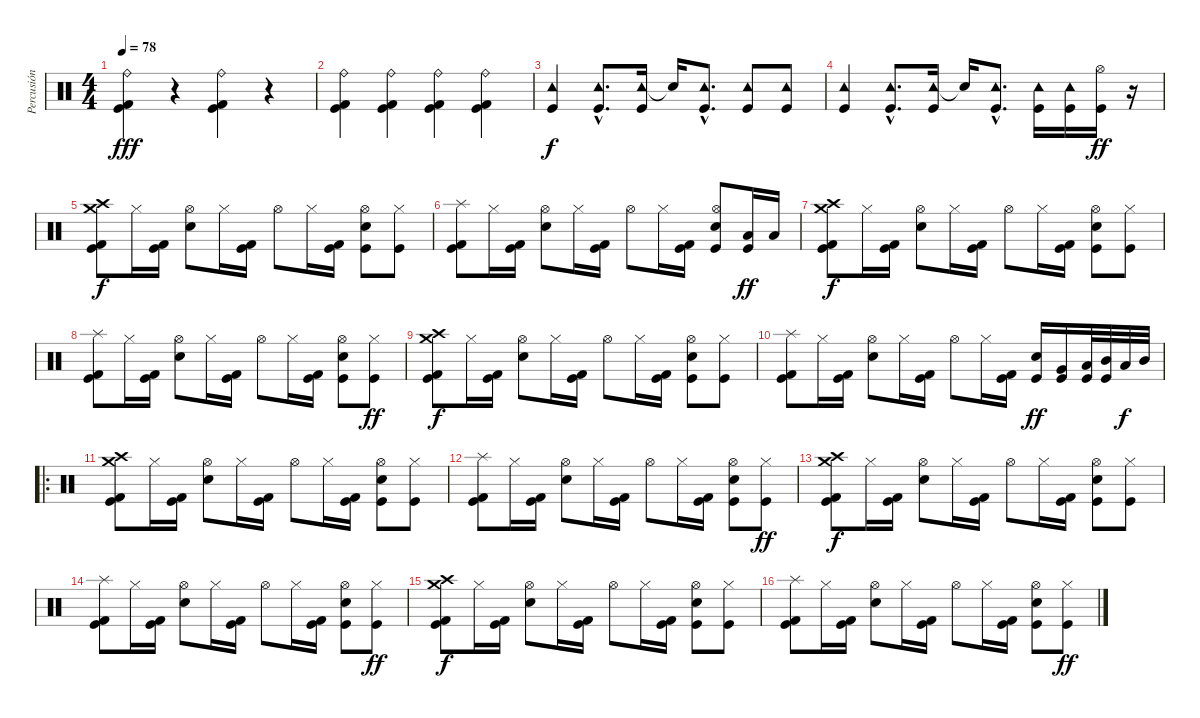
\track ("Percusión" "Percusión") {instrument percussion}
\staff {score}
\articulation defaults
\ts (4 4)
\tempo 78
\clef neutral
\ks c
("Ride (bell)" "Kick (hit) 2" "Kick (hit)").4{dy fff} r.4 ("Ride (bell)" "Kick (hit) 2" "Kick (hit)").4 r.4 |
("Ride (bell)" "Kick (hit) 2" "Kick (hit)").4 ("Ride (bell)" "Kick (hit) 2" "Kick (hit)").4 ("Ride (bell)" "Kick (hit) 2" "Kick (hit)").4 ("Ride (bell)" "Kick (hit) 2" "Kick (hit)").4 |
("Tambourine (hit)" "Kick (hit)").4{dy f} ("Tambourine (hit)"{hac} "Kick (hit)"{hac}).8{d} ("Tambourine (hit)" "Kick (hit)").16 "Snare (hit)"{t}.16 ("Tambourine (hit)"{hac} "Kick (hit)"{hac}).8{d} ("Tambourine (hit)" "Kick (hit)").8 ("Tambourine (hit)" "Kick (hit)").8 |
("Tambourine (hit)" "Kick (hit)").4 ("Tambourine (hit)"{hac} "Kick (hit)"{hac}).8{d} ("Tambourine (hit)" "Kick (hit)").16 "Snare (hit)"{t}.16 ("Tambourine (hit)"{hac} "Kick (hit)"{hac}).8{d} ("Tambourine (hit)" "Kick (hit)").16 ("Tambourine (hit)" "Kick (hit)").16 ("Hi-Hat (open)" "Kick (hit)").16{dy ff} r.16 |
("Crash high (hit)" "Crash medium (hit)" "Kick (hit) 2" "Kick (hit)").8{dy f} "Hi-Hat (closed)".16 ("Kick (hit) 2" "Kick (hit)").16 ("Hi-Hat (open)" "Electric Snare (hit)").8 "Hi-Hat (closed)".16 ("Kick (hit) 2" "Kick (hit)").16 "Hi-Hat (open)".8 "Hi-Hat (closed)".16 ("Kick (hit)" "Kick (hit) 2").16 ("Hi-Hat (open)" "Electric Snare (hit)" "Kick (hit)").8 ("Hi-Hat (closed)" "Kick (hit)").8 |
("Splash (hit)" "Kick (hit) 2" "Kick (hit)").8 "Hi-Hat (closed)".16 ("Kick (hit) 2" "Kick (hit)").16 ("Hi-Hat (open)" "Electric Snare (hit)").8 "Hi-Hat (closed)".16 ("Kick (hit) 2" "Kick (hit)").16 "Hi-Hat (open)".8 "Hi-Hat (closed)".16 ("Kick (hit)" "Kick (hit) 2").16 ("Hi-Hat (open)" "Electric Snare (hit)" "Kick (hit)").8 ("Low Floor Tom (hit)" "Kick (hit)").16{dy ff} "Low Tom (hit)".16 |
("Crash high (hit)" "Crash medium (hit)" "Kick (hit) 2" "Kick (hit)").8{dy f} "Hi-Hat (closed)".16 ("Kick (hit) 2" "Kick (hit)").16 ("Hi-Hat (open)" "Electric Snare (hit)").8 "Hi-Hat (closed)".16 ("Kick (hit) 2" "Kick (hit)").16 "Hi-Hat (open)".8 "Hi-Hat (closed)".16 ("Kick (hit)" "Kick (hit) 2").16 ("Hi-Hat (open)" "Electric Snare (hit)" "Kick (hit)").8 ("Hi-Hat (closed)" "Kick (hit)").8 |
("Splash (hit)" "Kick (hit) 2" "Kick (hit)").8 "Hi-Hat (closed)".16 ("Kick (hit) 2" "Kick (hit)").16 ("Hi-Hat (open)" "Electric Snare (hit)").8 "Hi-Hat (closed)".16 ("Kick (hit) 2" "Kick (hit)").16 "Hi-Hat (open)".8 "Hi-Hat (closed)".16 ("Kick (hit)" "Kick (hit) 2").16 ("Hi-Hat (open)" "Electric Snare (hit)" "Kick (hit)").8 ("Hi-Hat (closed)" "Kick (hit)").8{dy ff} |
("Crash high (hit)" "Crash medium (hit)" "Kick (hit) 2" "Kick (hit)").8{dy f} "Hi-Hat (closed)".16 ("Kick (hit) 2" "Kick (hit)").16 ("Hi-Hat (open)" "Electric Snare (hit)").8 "Hi-Hat (closed)".16 ("Kick (hit) 2" "Kick (hit)").16 "Hi-Hat (open)".8 "Hi-Hat (closed)".16 ("Kick (hit)" "Kick (hit) 2").16 ("Hi-Hat (open)" "Electric Snare (hit)" "Kick (hit)").8 ("Hi-Hat (closed)" "Kick (hit)").8 |
("Splash (hit)" "Kick (hit) 2" "Kick (hit)").8 "Hi-Hat (closed)".16 ("Kick (hit) 2" "Kick (hit)").16 ("Hi-Hat (open)" "Electric Snare (hit)").8 "Hi-Hat (closed)".16 ("Kick (hit) 2" "Kick (hit)").16 "Hi-Hat (open)".8 "Hi-Hat (closed)".16 ("Kick (hit)" "Kick (hit) 2").16 ("Electric Snare (hit)" "Kick (hit)").16{dy ff} ("Very Low Tom (hit)" "Kick (hit)").16 ("Low Tom (hit)" "Kick (hit)").32 ("Mid Tom (hit)" "Kick (hit)").32 "Low Tom (hit)".32{dy f} "Mid Tom (hit)".32 |
\ro
("Crash high (hit)" "Crash medium (hit)" "Kick (hit) 2" "Kick (hit)").8 "Hi-Hat (closed)".16 ("Kick (hit) 2" "Kick (hit)").16 ("Hi-Hat (open)" "Electric Snare (hit)").8 "Hi-Hat (closed)".16 ("Kick (hit) 2" "Kick (hit)").16 "Hi-Hat (open)".8 "Hi-Hat (closed)".16 ("Kick (hit)" "Kick (hit) 2").16 ("Hi-Hat (open)" "Electric Snare (hit)" "Kick (hit)").8 ("Hi-Hat (closed)" "Kick (hit)").8 |
("Splash (hit)" "Kick (hit) 2" "Kick (hit)").8 "Hi-Hat (closed)".16 ("Kick (hit) 2" "Kick (hit)").16 ("Hi-Hat (open)" "Electric Snare (hit)").8 "Hi-Hat (closed)".16 ("Kick (hit) 2" "Kick (hit)").16 "Hi-Hat (open)".8 "Hi-Hat (closed)".16 ("Kick (hit)" "Kick (hit) 2").16 ("Hi-Hat (open)" "Electric Snare (hit)" "Kick (hit)").8 ("Hi-Hat (closed)" "Kick (hit)").8{dy ff} |
("Crash high (hit)" "Crash medium (hit)" "Kick (hit) 2" "Kick (hit)").8{dy f} "Hi-Hat (closed)".16 ("Kick (hit) 2" "Kick (hit)").16 ("Hi-Hat (open)" "Electric Snare (hit)").8 "Hi-Hat (closed)".16 ("Kick (hit) 2" "Kick (hit)").16 "Hi-Hat (open)".8 "Hi-Hat (closed)".16 ("Kick (hit)" "Kick (hit) 2").16 ("Hi-Hat (open)" "Electric Snare (hit)" "Kick (hit)").8 ("Hi-Hat (closed)" "Kick (hit)").8 |
("Splash (hit)" "Kick (hit) 2" "Kick (hit)").8 "Hi-Hat (closed)".16 ("Kick (hit) 2" "Kick (hit)").16 ("Hi-Hat (open)" "Electric Snare (hit)").8 "Hi-Hat (closed)".16 ("Kick (hit) 2" "Kick (hit)").16 "Hi-Hat (open)".8 "Hi-Hat (closed)".16 ("Kick (hit)" "Kick (hit) 2").16 ("Hi-Hat (open)" "Electric Snare (hit)" "Kick (hit)").8 ("Hi-Hat (closed)" "Kick (hit)").8{dy ff} |
("Crash high (hit)" "Crash medium (hit)" "Kick (hit) 2" "Kick (hit)").8{dy f} "Hi-Hat (closed)".16 ("Kick (hit) 2" "Kick (hit)").16 ("Hi-Hat (open)" "Electric Snare (hit)").8 "Hi-Hat (closed)".16 ("Kick (hit) 2" "Kick (hit)").16 "Hi-Hat (open)".8 "Hi-Hat (closed)".16 ("Kick (hit)" "Kick (hit) 2").16 ("Hi-Hat (open)" "Electric Snare (hit)" "Kick (hit)").8 ("Hi-Hat (closed)" "Kick (hit)").8 |
("Splash (hit)" "Kick (hit) 2" "Kick (hit)").8 "Hi-Hat (closed)".16 ("Kick (hit) 2" "Kick (hit)").16 ("Hi-Hat (open)" "Electric Snare (hit)").8 "Hi-Hat (closed)".16 ("Kick (hit) 2" "Kick (hit)").16 "Hi-Hat (open)".8 "Hi-Hat (closed)".16 ("Kick (hit)" "Kick (hit) 2").16 ("Hi-Hat (open)" "Electric Snare (hit)" "Kick (hit)").8 ("Hi-Hat (closed)" "Kick (hit)").8{dy ff}
